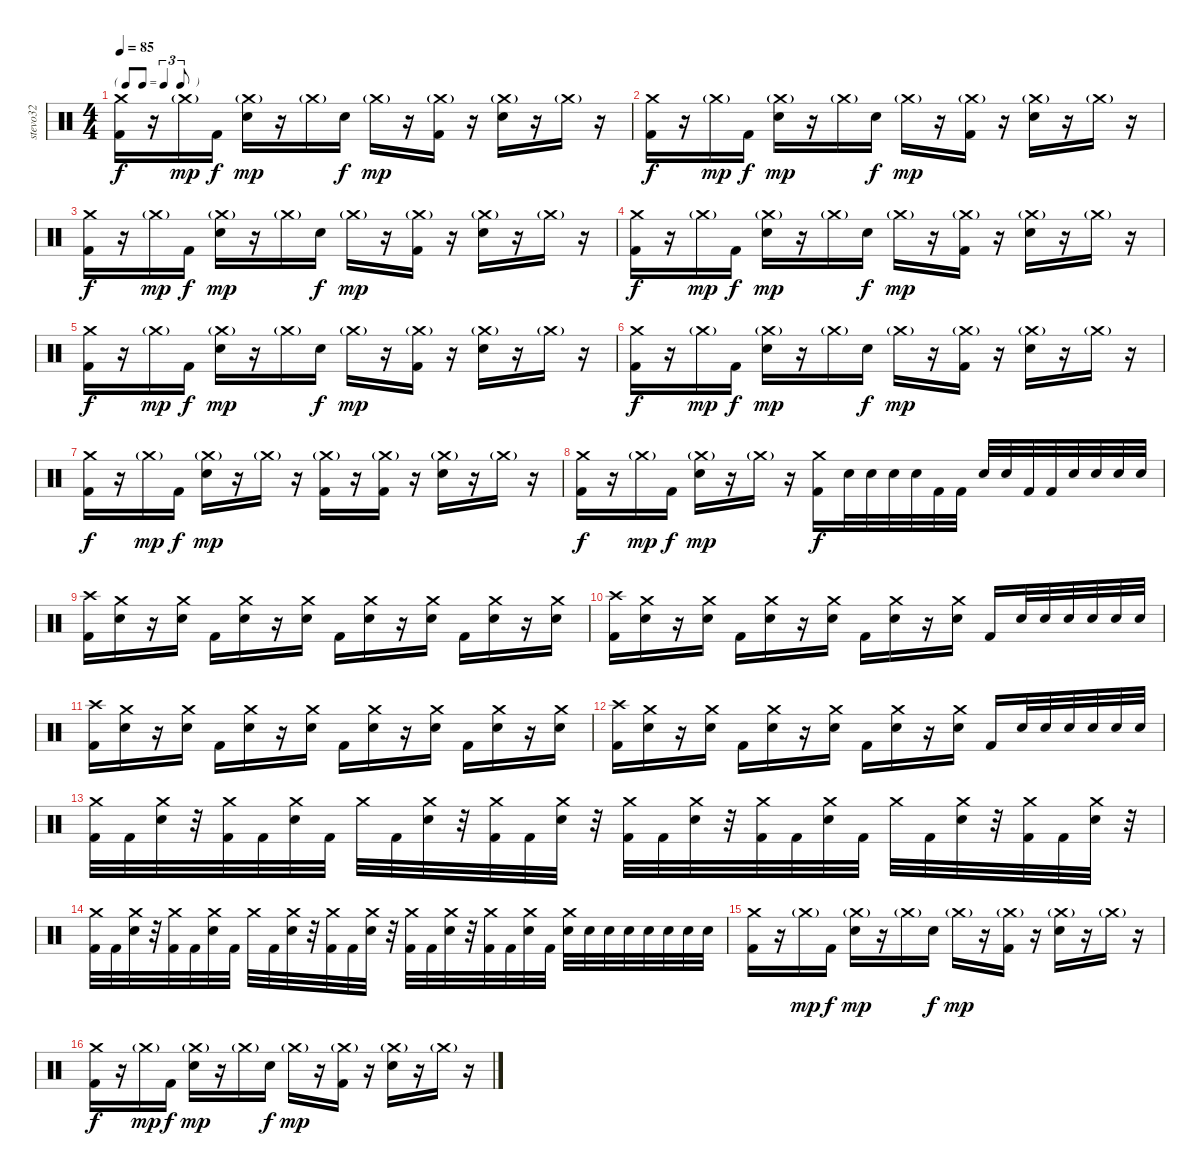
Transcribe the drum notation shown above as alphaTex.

\track ("stevo32" "stevo32") {instrument percussion}
\staff {score}
\articulation defaults
\ts (4 4)
\tf triplet8th
\tempo 85
\clef neutral
\ks c
("Crash medium (hit)" "Kick (hit) 2").16{dy f} r.16 "Crash medium (hit)"{g}.16{dy mp} "Kick (hit) 2".16{dy f} ("Crash medium (hit)"{g} "Electric Snare (hit)").16{dy mp} r.16 "Crash medium (hit)"{g}.16 "Electric Snare (hit)".16{dy f} "Crash medium (hit)"{g}.16{dy mp} r.16 ("Crash medium (hit)"{g} "Kick (hit) 2").16 r.16 ("Crash medium (hit)"{g} "Electric Snare (hit)").16 r.16 "Crash medium (hit)"{g}.16 r.16 |
("Crash medium (hit)" "Kick (hit) 2").16{dy f} r.16 "Crash medium (hit)"{g}.16{dy mp} "Kick (hit) 2".16{dy f} ("Crash medium (hit)"{g} "Electric Snare (hit)").16{dy mp} r.16 "Crash medium (hit)"{g}.16 "Electric Snare (hit)".16{dy f} "Crash medium (hit)"{g}.16{dy mp} r.16 ("Crash medium (hit)"{g} "Kick (hit) 2").16 r.16 ("Crash medium (hit)"{g} "Electric Snare (hit)").16 r.16 "Crash medium (hit)"{g}.16 r.16 |
("Crash medium (hit)" "Kick (hit) 2").16{dy f} r.16 "Crash medium (hit)"{g}.16{dy mp} "Kick (hit) 2".16{dy f} ("Crash medium (hit)"{g} "Electric Snare (hit)").16{dy mp} r.16 "Crash medium (hit)"{g}.16 "Electric Snare (hit)".16{dy f} "Crash medium (hit)"{g}.16{dy mp} r.16 ("Crash medium (hit)"{g} "Kick (hit) 2").16 r.16 ("Crash medium (hit)"{g} "Electric Snare (hit)").16 r.16 "Crash medium (hit)"{g}.16 r.16 |
("Crash medium (hit)" "Kick (hit) 2").16{dy f} r.16 "Crash medium (hit)"{g}.16{dy mp} "Kick (hit) 2".16{dy f} ("Crash medium (hit)"{g} "Electric Snare (hit)").16{dy mp} r.16 "Crash medium (hit)"{g}.16 "Electric Snare (hit)".16{dy f} "Crash medium (hit)"{g}.16{dy mp} r.16 ("Crash medium (hit)"{g} "Kick (hit) 2").16 r.16 ("Crash medium (hit)"{g} "Electric Snare (hit)").16 r.16 "Crash medium (hit)"{g}.16 r.16 |
("Crash medium (hit)" "Kick (hit) 2").16{dy f} r.16 "Crash medium (hit)"{g}.16{dy mp} "Kick (hit) 2".16{dy f} ("Crash medium (hit)"{g} "Electric Snare (hit)").16{dy mp} r.16 "Crash medium (hit)"{g}.16 "Electric Snare (hit)".16{dy f} "Crash medium (hit)"{g}.16{dy mp} r.16 ("Crash medium (hit)"{g} "Kick (hit) 2").16 r.16 ("Crash medium (hit)"{g} "Electric Snare (hit)").16 r.16 "Crash medium (hit)"{g}.16 r.16 |
("Crash medium (hit)" "Kick (hit) 2").16{dy f} r.16 "Crash medium (hit)"{g}.16{dy mp} "Kick (hit) 2".16{dy f} ("Crash medium (hit)"{g} "Electric Snare (hit)").16{dy mp} r.16 "Crash medium (hit)"{g}.16 "Electric Snare (hit)".16{dy f} "Crash medium (hit)"{g}.16{dy mp} r.16 ("Crash medium (hit)"{g} "Kick (hit) 2").16 r.16 ("Crash medium (hit)"{g} "Electric Snare (hit)").16 r.16 "Crash medium (hit)"{g}.16 r.16 |
("Crash medium (hit)" "Kick (hit) 2").16{dy f} r.16 "Crash medium (hit)"{g}.16{dy mp} "Kick (hit) 2".16{dy f} ("Crash medium (hit)"{g} "Electric Snare (hit)").16{dy mp} r.16 "Crash medium (hit)"{g}.16 r.16 ("Crash medium (hit)"{g} "Kick (hit) 2").16 r.16 ("Crash medium (hit)"{g} "Kick (hit) 2").16 r.16 ("Crash medium (hit)"{g} "Electric Snare (hit)").16 r.16 "Crash medium (hit)"{g}.16 r.16 |
("Crash medium (hit)" "Kick (hit) 2").16{dy f} r.16 "Crash medium (hit)"{g}.16{dy mp} "Kick (hit) 2".16{dy f} ("Crash medium (hit)"{g} "Electric Snare (hit)").16{dy mp} r.16 "Crash medium (hit)"{g}.16 r.16 ("Crash medium (hit)" "Kick (hit) 2").16{dy f} "Electric Snare (hit)".32 "Electric Snare (hit)".32 "Electric Snare (hit)".32 "Electric Snare (hit)".32 "Kick (hit) 2".32 "Kick (hit) 2".32 "Electric Snare (hit)".32 "Electric Snare (hit)".32 "Kick (hit) 2".32 "Kick (hit) 2".32 "Electric Snare (hit)".32 "Electric Snare (hit)".32 "Electric Snare (hit)".32 "Electric Snare (hit)".32 |
("Crash high (hit)" "Kick (hit) 2").16 ("Crash medium (hit)" "Electric Snare (hit)").16 r.16 ("Crash medium (hit)" "Electric Snare (hit)").16 "Kick (hit) 2".16 ("Crash medium (hit)" "Electric Snare (hit)").16 r.16 ("Crash medium (hit)" "Electric Snare (hit)").16 "Kick (hit) 2".16 ("Crash medium (hit)" "Electric Snare (hit)").16 r.16 ("Crash medium (hit)" "Electric Snare (hit)").16 "Kick (hit) 2".16 ("Crash medium (hit)" "Electric Snare (hit)").16 r.16 ("Crash medium (hit)" "Electric Snare (hit)").16 |
("Crash high (hit)" "Kick (hit) 2").16 ("Crash medium (hit)" "Electric Snare (hit)").16 r.16 ("Crash medium (hit)" "Electric Snare (hit)").16 "Kick (hit) 2".16 ("Crash medium (hit)" "Electric Snare (hit)").16 r.16 ("Crash medium (hit)" "Electric Snare (hit)").16 "Kick (hit) 2".16 ("Crash medium (hit)" "Electric Snare (hit)").16 r.16 ("Crash medium (hit)" "Electric Snare (hit)").16 "Kick (hit) 2".16 "Electric Snare (hit)".32 "Electric Snare (hit)".32 "Electric Snare (hit)".32 "Electric Snare (hit)".32 "Electric Snare (hit)".32 "Electric Snare (hit)".32 |
("Crash high (hit)" "Kick (hit) 2").16 ("Crash medium (hit)" "Electric Snare (hit)").16 r.16 ("Crash medium (hit)" "Electric Snare (hit)").16 "Kick (hit) 2".16 ("Crash medium (hit)" "Electric Snare (hit)").16 r.16 ("Crash medium (hit)" "Electric Snare (hit)").16 "Kick (hit) 2".16 ("Crash medium (hit)" "Electric Snare (hit)").16 r.16 ("Crash medium (hit)" "Electric Snare (hit)").16 "Kick (hit) 2".16 ("Crash medium (hit)" "Electric Snare (hit)").16 r.16 ("Crash medium (hit)" "Electric Snare (hit)").16 |
("Crash high (hit)" "Kick (hit) 2").16 ("Crash medium (hit)" "Electric Snare (hit)").16 r.16 ("Crash medium (hit)" "Electric Snare (hit)").16 "Kick (hit) 2".16 ("Crash medium (hit)" "Electric Snare (hit)").16 r.16 ("Crash medium (hit)" "Electric Snare (hit)").16 "Kick (hit) 2".16 ("Crash medium (hit)" "Electric Snare (hit)").16 r.16 ("Crash medium (hit)" "Electric Snare (hit)").16 "Kick (hit) 2".16 "Electric Snare (hit)".32 "Electric Snare (hit)".32 "Electric Snare (hit)".32 "Electric Snare (hit)".32 "Electric Snare (hit)".32 "Electric Snare (hit)".32 |
("Crash medium (hit)" "Kick (hit) 2").32 "Kick (hit) 2".32 ("Crash medium (hit)" "Electric Snare (hit)").32 r.32 ("Crash medium (hit)" "Kick (hit) 2").32 "Kick (hit) 2".32 ("Crash medium (hit)" "Electric Snare (hit)").32 "Kick (hit) 2".32 "Crash medium (hit)".32 "Kick (hit) 2".32 ("Crash medium (hit)" "Electric Snare (hit)").32 r.32 ("Crash medium (hit)" "Kick (hit) 2").32 "Kick (hit) 2".32 ("Crash medium (hit)" "Electric Snare (hit)").32 r.32 ("Crash medium (hit)" "Kick (hit) 2").32 "Kick (hit) 2".32 ("Crash medium (hit)" "Electric Snare (hit)").32 r.32 ("Crash medium (hit)" "Kick (hit) 2").32 "Kick (hit) 2".32 ("Crash medium (hit)" "Electric Snare (hit)").32 "Kick (hit) 2".32 "Crash medium (hit)".32 "Kick (hit) 2".32 ("Crash medium (hit)" "Electric Snare (hit)").32 r.32 ("Crash medium (hit)" "Kick (hit) 2").32 "Kick (hit) 2".32 ("Crash medium (hit)" "Electric Snare (hit)").32 r.32 |
("Crash medium (hit)" "Kick (hit) 2").32 "Kick (hit) 2".32 ("Crash medium (hit)" "Electric Snare (hit)").32 r.32 ("Crash medium (hit)" "Kick (hit) 2").32 "Kick (hit) 2".32 ("Crash medium (hit)" "Electric Snare (hit)").32 "Kick (hit) 2".32 "Crash medium (hit)".32 "Kick (hit) 2".32 ("Crash medium (hit)" "Electric Snare (hit)").32 r.32 ("Crash medium (hit)" "Kick (hit) 2").32 "Kick (hit) 2".32 ("Crash medium (hit)" "Electric Snare (hit)").32 r.32 ("Crash medium (hit)" "Kick (hit) 2").32 "Kick (hit) 2".32 ("Crash medium (hit)" "Electric Snare (hit)").32 r.32 ("Crash medium (hit)" "Kick (hit) 2").32 "Kick (hit) 2".32 ("Crash medium (hit)" "Electric Snare (hit)").32 "Kick (hit) 2".32 ("Crash medium (hit)" "Electric Snare (hit)").32 "Electric Snare (hit)".32 "Electric Snare (hit)".32 "Electric Snare (hit)".32 "Electric Snare (hit)".32 "Electric Snare (hit)".32 "Electric Snare (hit)".32 "Electric Snare (hit)".32 |
("Crash medium (hit)" "Kick (hit) 2").16 r.16 "Crash medium (hit)"{g}.16{dy mp} "Kick (hit) 2".16{dy f} ("Crash medium (hit)"{g} "Electric Snare (hit)").16{dy mp} r.16 "Crash medium (hit)"{g}.16 "Electric Snare (hit)".16{dy f} "Crash medium (hit)"{g}.16{dy mp} r.16 ("Crash medium (hit)"{g} "Kick (hit) 2").16 r.16 ("Crash medium (hit)"{g} "Electric Snare (hit)").16 r.16 "Crash medium (hit)"{g}.16 r.16 |
("Crash medium (hit)" "Kick (hit) 2").16{dy f} r.16 "Crash medium (hit)"{g}.16{dy mp} "Kick (hit) 2".16{dy f} ("Crash medium (hit)"{g} "Electric Snare (hit)").16{dy mp} r.16 "Crash medium (hit)"{g}.16 "Electric Snare (hit)".16{dy f} "Crash medium (hit)"{g}.16{dy mp} r.16 ("Crash medium (hit)"{g} "Kick (hit) 2").16 r.16 ("Crash medium (hit)"{g} "Electric Snare (hit)").16 r.16 "Crash medium (hit)"{g}.16 r.16
